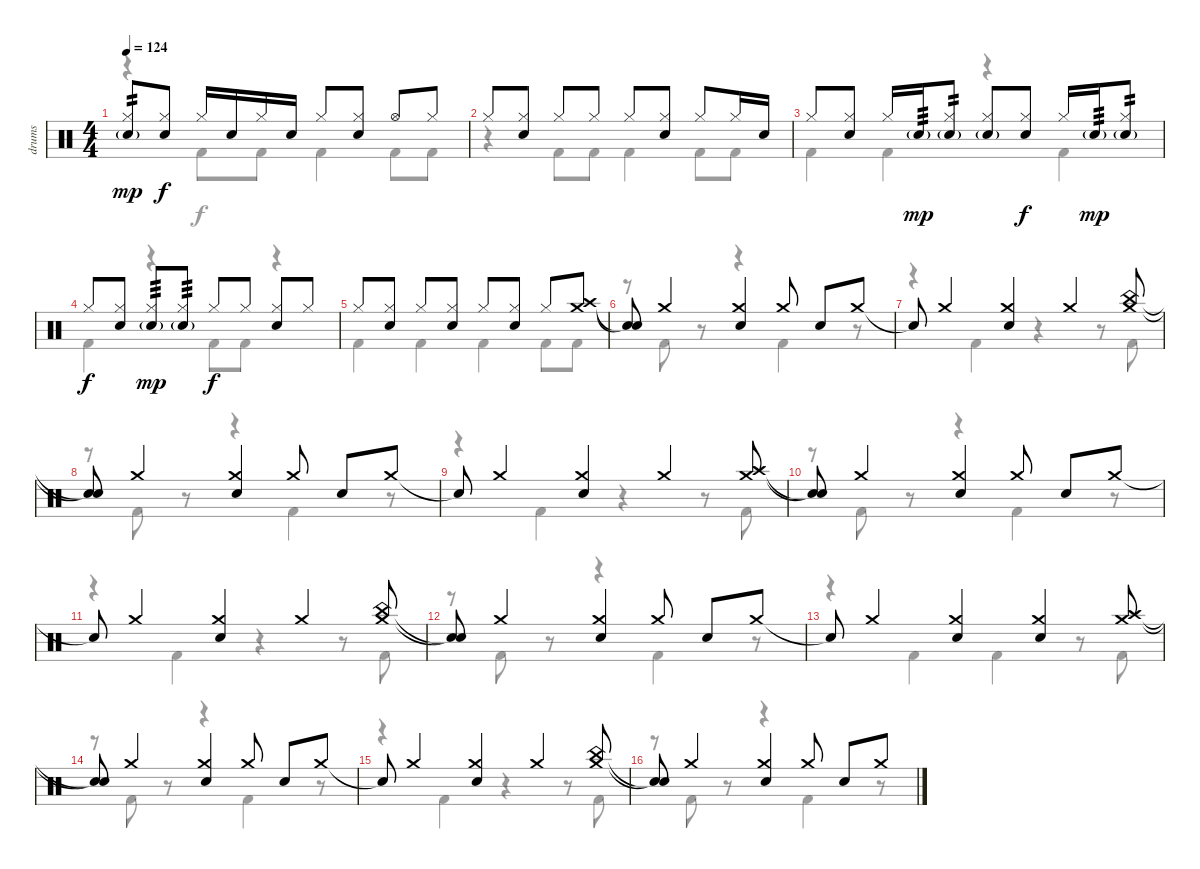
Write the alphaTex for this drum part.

\track ("drums" "drums") {instrument percussion}
\staff {score}
\articulation defaults
\voice
\ts (4 4)
\tempo 124
\clef neutral
\ks c
("Hi-Hat (closed)" "Snare (hit) 2"{g}).8{tp 2 dy mp} ("Hi-Hat (closed)" "Snare (hit) 2").8{dy f} "Hi-Hat (closed)".16 "Snare (hit) 2".16 "Hi-Hat (closed)".16 "Snare (hit) 2".16 "Hi-Hat (closed)".8 ("Hi-Hat (closed)" "Snare (hit) 2").8 "Hi-Hat (open)".8 "Hi-Hat (closed)".8 |
"Hi-Hat (closed)".8 ("Hi-Hat (closed)" "Snare (hit) 2").8 "Hi-Hat (closed)".8 "Hi-Hat (closed)".8 "Hi-Hat (closed)".8 ("Hi-Hat (closed)" "Snare (hit) 2").8 "Hi-Hat (closed)".8 "Hi-Hat (closed)".16 "Snare (hit) 2".16 |
"Hi-Hat (closed)".8 ("Hi-Hat (closed)" "Snare (hit) 2").8 "Hi-Hat (closed)".16 "Snare (hit) 2"{g}.16{tp 3 dy mp} ("Hi-Hat (closed)" "Snare (hit) 2"{g}).8{tp 2} ("Hi-Hat (closed)" "Snare (hit) 2"{g}).8 ("Hi-Hat (closed)" "Snare (hit) 2").8{dy f} "Hi-Hat (closed)".16 "Snare (hit) 2"{g}.16{tp 3 dy mp} ("Hi-Hat (closed)" "Snare (hit) 2"{g}).8{tp 2} |
"Hi-Hat (closed)".8{dy f} ("Hi-Hat (closed)" "Snare (hit) 2").8 ("Hi-Hat (closed)" "Snare (hit) 2"{g}).8{tp 3 dy mp} ("Hi-Hat (closed)" "Snare (hit) 2"{g}).8{tp 3} "Hi-Hat (closed)".8{dy f} "Hi-Hat (closed)".8 ("Hi-Hat (closed)" "Snare (hit) 2").8 "Hi-Hat (closed)".8 |
"Hi-Hat (closed)".8 ("Hi-Hat (closed)" "Snare (hit) 2").8 "Hi-Hat (closed)".8 ("Hi-Hat (closed)" "Snare (hit) 2").8 "Hi-Hat (closed)".8 ("Hi-Hat (closed)" "Snare (hit) 2").8 "Hi-Hat (closed)".8 ("Crash medium (hit)" "Crash high (hit)").8 |
("Snare (hit)"{t} "Snare (hit)"{t}).8 "Crash medium (hit)".4 ("Crash medium (hit)" "Snare (hit) 2").4 "Crash medium (hit)".8 "Snare (hit) 2".8 "Crash medium (hit)".8 |
"Snare (hit)"{t}.8 "Crash medium (hit)".4 ("Crash medium (hit)" "Snare (hit) 2").4 "Crash medium (hit)".4 ("Crash medium (hit)" "China (hit)").8 |
("Snare (hit)"{t} "Snare (hit)"{t}).8 "Crash medium (hit)".4 ("Crash medium (hit)" "Snare (hit) 2").4 "Crash medium (hit)".8 "Snare (hit) 2".8 "Crash medium (hit)".8 |
"Snare (hit)"{t}.8 "Crash medium (hit)".4 ("Crash medium (hit)" "Snare (hit) 2").4 "Crash medium (hit)".4 ("Crash medium (hit)" "Crash high (hit)").8 |
("Snare (hit)"{t} "Snare (hit)"{t}).8 "Crash medium (hit)".4 ("Crash medium (hit)" "Snare (hit) 2").4 "Crash medium (hit)".8 "Snare (hit) 2".8 "Crash medium (hit)".8 |
"Snare (hit)"{t}.8 "Crash medium (hit)".4 ("Crash medium (hit)" "Snare (hit) 2").4 "Crash medium (hit)".4 ("Crash medium (hit)" "China (hit)").8 |
("Snare (hit)"{t} "Snare (hit)"{t}).8 "Crash medium (hit)".4 ("Crash medium (hit)" "Snare (hit) 2").4 "Crash medium (hit)".8 "Snare (hit) 2".8 "Crash medium (hit)".8 |
"Snare (hit)"{t}.8 "Crash medium (hit)".4 ("Crash medium (hit)" "Snare (hit) 2").4 ("Crash medium (hit)" "Snare (hit) 2").4 ("Crash medium (hit)" "Crash high (hit)").8 |
("Snare (hit)"{t} "Snare (hit)"{t}).8 "Crash medium (hit)".4 ("Crash medium (hit)" "Snare (hit) 2").4 "Crash medium (hit)".8 "Snare (hit) 2".8 "Crash medium (hit)".8 |
"Snare (hit)"{t}.8 "Crash medium (hit)".4 ("Crash medium (hit)" "Snare (hit) 2").4 "Crash medium (hit)".4 ("Crash medium (hit)" "China (hit)").8 |
("Snare (hit)"{t} "Snare (hit)"{t}).8 "Crash medium (hit)".4 ("Crash medium (hit)" "Snare (hit) 2").4 "Crash medium (hit)".8 "Snare (hit) 2".8 "Crash medium (hit)".8
\voice
\clef neutral
\ottava regular
\simile none
\ks c
r.4{dy f} "Kick (hit) 2".8 "Kick (hit) 2".8 "Kick (hit) 2".4 "Kick (hit) 2".8 "Kick (hit) 2".8 |
r.4 "Kick (hit) 2".8 "Kick (hit) 2".8 "Kick (hit) 2".4 "Kick (hit) 2".8 "Kick (hit) 2".8 |
"Kick (hit) 2".4 "Kick (hit) 2".4 r.4 "Kick (hit) 2".4 |
"Kick (hit) 2".4 r.4 "Kick (hit) 2".8 "Kick (hit) 2".8 r.4 |
"Kick (hit) 2".4 "Kick (hit) 2".4 "Kick (hit) 2".4 "Kick (hit) 2".8 "Kick (hit) 2".8 |
r.8 "Kick (hit) 2".8 r.8 r.4 "Kick (hit) 2".4 r.8 |
r.4 "Kick (hit) 2".4 r.4 r.8 "Kick (hit) 2".8 |
r.8 "Kick (hit) 2".8 r.8 r.4 "Kick (hit) 2".4 r.8 |
r.4 "Kick (hit) 2".4 r.4 r.8 "Kick (hit) 2".8 |
r.8 "Kick (hit) 2".8 r.8 r.4 "Kick (hit) 2".4 r.8 |
r.4 "Kick (hit) 2".4 r.4 r.8 "Kick (hit) 2".8 |
r.8 "Kick (hit) 2".8 r.8 r.4 "Kick (hit) 2".4 r.8 |
r.4 "Kick (hit) 2".4 "Kick (hit) 2".4 r.8 "Kick (hit) 2".8 |
r.8 "Kick (hit) 2".8 r.8 r.4 "Kick (hit) 2".4 r.8 |
r.4 "Kick (hit) 2".4 r.4 r.8 "Kick (hit) 2".8 |
r.8 "Kick (hit) 2".8 r.8 r.4 "Kick (hit) 2".4 r.8
